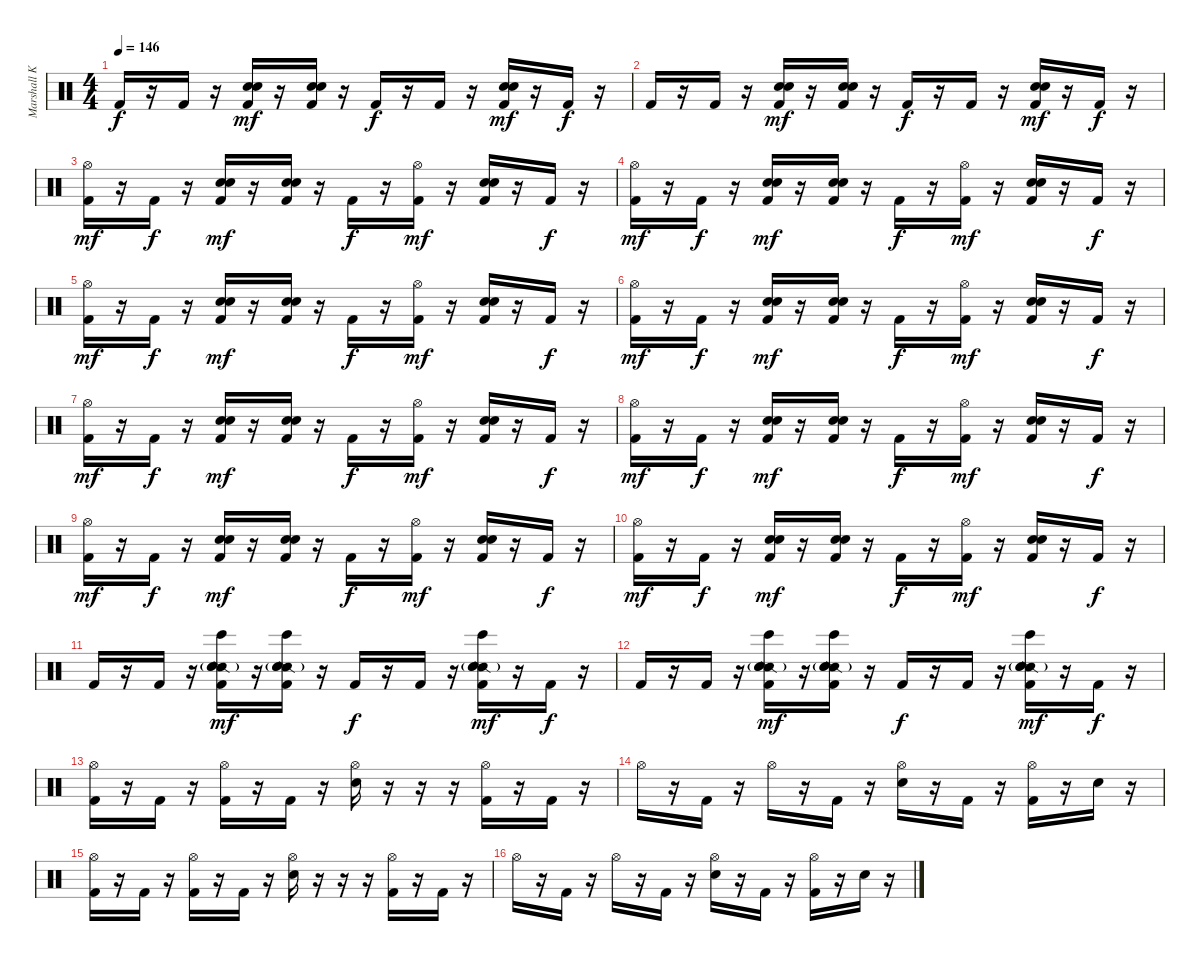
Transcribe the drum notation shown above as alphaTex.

\track ("Marshall Kilpatric" "Marshall K") {instrument percussion}
\staff {score}
\articulation defaults
\ts (4 4)
\tempo 146
\clef neutral
\ks c "Kick (hit) 2".16{dy f}
r.16 "Kick (hit) 2".16 r.16 ("Hand Clap (hit)" "Electric Snare (hit)" "Kick (hit) 2").16{dy mf} r.16 ("Hand Clap (hit)" "Electric Snare (hit)" "Kick (hit) 2").16 r.16 "Kick (hit) 2".16{dy f} r.16 "Kick (hit) 2".16 r.16 ("Hand Clap (hit)" "Electric Snare (hit)" "Kick (hit) 2").16{dy mf} r.16 "Kick (hit) 2".16{dy f} r.16 |
"Kick (hit) 2".16 r.16 "Kick (hit) 2".16 r.16 ("Hand Clap (hit)" "Electric Snare (hit)" "Kick (hit) 2").16{dy mf} r.16 ("Hand Clap (hit)" "Electric Snare (hit)" "Kick (hit) 2").16 r.16 "Kick (hit) 2".16{dy f} r.16 "Kick (hit) 2".16 r.16 ("Hand Clap (hit)" "Electric Snare (hit)" "Kick (hit) 2").16{dy mf} r.16 "Kick (hit) 2".16{dy f} r.16 |
("Hi-Hat (open)" "Kick (hit) 2").16{dy mf} r.16 "Kick (hit) 2".16{dy f} r.16 ("Hand Clap (hit)" "Electric Snare (hit)" "Kick (hit) 2").16{dy mf} r.16 ("Hand Clap (hit)" "Electric Snare (hit)" "Kick (hit) 2").16 r.16 "Kick (hit) 2".16{dy f} r.16 ("Hi-Hat (open)" "Kick (hit) 2").16{dy mf} r.16 ("Hand Clap (hit)" "Electric Snare (hit)" "Kick (hit) 2").16 r.16 "Kick (hit) 2".16{dy f} r.16 |
("Hi-Hat (open)" "Kick (hit) 2").16{dy mf} r.16 "Kick (hit) 2".16{dy f} r.16 ("Hand Clap (hit)" "Electric Snare (hit)" "Kick (hit) 2").16{dy mf} r.16 ("Hand Clap (hit)" "Electric Snare (hit)" "Kick (hit) 2").16 r.16 "Kick (hit) 2".16{dy f} r.16 ("Hi-Hat (open)" "Kick (hit) 2").16{dy mf} r.16 ("Hand Clap (hit)" "Electric Snare (hit)" "Kick (hit) 2").16 r.16 "Kick (hit) 2".16{dy f} r.16 |
("Hi-Hat (open)" "Kick (hit) 2").16{dy mf} r.16 "Kick (hit) 2".16{dy f} r.16 ("Hand Clap (hit)" "Electric Snare (hit)" "Kick (hit) 2").16{dy mf} r.16 ("Hand Clap (hit)" "Electric Snare (hit)" "Kick (hit) 2").16 r.16 "Kick (hit) 2".16{dy f} r.16 ("Hi-Hat (open)" "Kick (hit) 2").16{dy mf} r.16 ("Hand Clap (hit)" "Electric Snare (hit)" "Kick (hit) 2").16 r.16 "Kick (hit) 2".16{dy f} r.16 |
("Hi-Hat (open)" "Kick (hit) 2").16{dy mf} r.16 "Kick (hit) 2".16{dy f} r.16 ("Hand Clap (hit)" "Electric Snare (hit)" "Kick (hit) 2").16{dy mf} r.16 ("Hand Clap (hit)" "Electric Snare (hit)" "Kick (hit) 2").16 r.16 "Kick (hit) 2".16{dy f} r.16 ("Hi-Hat (open)" "Kick (hit) 2").16{dy mf} r.16 ("Hand Clap (hit)" "Electric Snare (hit)" "Kick (hit) 2").16 r.16 "Kick (hit) 2".16{dy f} r.16 |
("Hi-Hat (open)" "Kick (hit) 2").16{dy mf} r.16 "Kick (hit) 2".16{dy f} r.16 ("Hand Clap (hit)" "Electric Snare (hit)" "Kick (hit) 2").16{dy mf} r.16 ("Hand Clap (hit)" "Electric Snare (hit)" "Kick (hit) 2").16 r.16 "Kick (hit) 2".16{dy f} r.16 ("Hi-Hat (open)" "Kick (hit) 2").16{dy mf} r.16 ("Hand Clap (hit)" "Electric Snare (hit)" "Kick (hit) 2").16 r.16 "Kick (hit) 2".16{dy f} r.16 |
("Hi-Hat (open)" "Kick (hit) 2").16{dy mf} r.16 "Kick (hit) 2".16{dy f} r.16 ("Hand Clap (hit)" "Electric Snare (hit)" "Kick (hit) 2").16{dy mf} r.16 ("Hand Clap (hit)" "Electric Snare (hit)" "Kick (hit) 2").16 r.16 "Kick (hit) 2".16{dy f} r.16 ("Hi-Hat (open)" "Kick (hit) 2").16{dy mf} r.16 ("Hand Clap (hit)" "Electric Snare (hit)" "Kick (hit) 2").16 r.16 "Kick (hit) 2".16{dy f} r.16 |
("Hi-Hat (open)" "Kick (hit) 2").16{dy mf} r.16 "Kick (hit) 2".16{dy f} r.16 ("Hand Clap (hit)" "Electric Snare (hit)" "Kick (hit) 2").16{dy mf} r.16 ("Hand Clap (hit)" "Electric Snare (hit)" "Kick (hit) 2").16 r.16 "Kick (hit) 2".16{dy f} r.16 ("Hi-Hat (open)" "Kick (hit) 2").16{dy mf} r.16 ("Hand Clap (hit)" "Electric Snare (hit)" "Kick (hit) 2").16 r.16 "Kick (hit) 2".16{dy f} r.16 |
("Hi-Hat (open)" "Kick (hit) 2").16{dy mf} r.16 "Kick (hit) 2".16{dy f} r.16 ("Hand Clap (hit)" "Electric Snare (hit)" "Kick (hit) 2").16{dy mf} r.16 ("Hand Clap (hit)" "Electric Snare (hit)" "Kick (hit) 2").16 r.16 "Kick (hit) 2".16{dy f} r.16 ("Hi-Hat (open)" "Kick (hit) 2").16{dy mf} r.16 ("Hand Clap (hit)" "Electric Snare (hit)" "Kick (hit) 2").16 r.16 "Kick (hit) 2".16{dy f} r.16 |
"Kick (hit) 2".16 r.16 "Kick (hit) 2".16 r.16 ("Snare (side stick) 2" "Snare (hit) 2"{g} "Bongo High (hit)" "Electric Snare (hit)" "Kick (hit) 2").16{dy mf} r.16 ("Snare (side stick) 2" "Snare (hit) 2"{g} "Bongo High (hit)" "Electric Snare (hit)" "Kick (hit) 2").16 r.16 "Kick (hit) 2".16{dy f} r.16 "Kick (hit) 2".16 r.16 ("Snare (side stick) 2" "Snare (hit) 2"{g} "Bongo High (hit)" "Electric Snare (hit)" "Kick (hit) 2").16{dy mf} r.16 "Kick (hit) 2".16{dy f} r.16 |
"Kick (hit) 2".16 r.16 "Kick (hit) 2".16 r.16 ("Snare (side stick) 2" "Snare (hit) 2"{g} "Bongo High (hit)" "Electric Snare (hit)" "Kick (hit) 2").16{dy mf} r.16 ("Snare (side stick) 2" "Snare (hit) 2"{g} "Bongo High (hit)" "Electric Snare (hit)" "Kick (hit) 2").16 r.16 "Kick (hit) 2".16{dy f} r.16 "Kick (hit) 2".16 r.16 ("Snare (side stick) 2" "Snare (hit) 2"{g} "Bongo High (hit)" "Electric Snare (hit)" "Kick (hit) 2").16{dy mf} r.16 "Kick (hit) 2".16{dy f} r.16 |
("Hi-Hat (open)" "Kick (hit) 2").16 r.16 "Kick (hit) 2".16 r.16 ("Hi-Hat (open)" "Kick (hit) 2").16 r.16 "Kick (hit) 2".16 r.16 ("Hi-Hat (open)" "Electric Snare (hit)").16 r.16 r.16 r.16 ("Hi-Hat (open)" "Kick (hit) 2").16 r.16 "Kick (hit) 2".16 r.16 |
"Hi-Hat (open)".16 r.16 "Kick (hit) 2".16 r.16 "Hi-Hat (open)".16 r.16 "Kick (hit) 2".16 r.16 ("Hi-Hat (open)" "Electric Snare (hit)").16 r.16 "Kick (hit) 2".16 r.16 ("Hi-Hat (open)" "Kick (hit) 2").16 r.16 "Electric Snare (hit)".16 r.16 |
("Hi-Hat (open)" "Kick (hit) 2").16 r.16 "Kick (hit) 2".16 r.16 ("Hi-Hat (open)" "Kick (hit) 2").16 r.16 "Kick (hit) 2".16 r.16 ("Hi-Hat (open)" "Electric Snare (hit)").16 r.16 r.16 r.16 ("Hi-Hat (open)" "Kick (hit) 2").16 r.16 "Kick (hit) 2".16 r.16 |
"Hi-Hat (open)".16 r.16 "Kick (hit) 2".16 r.16 "Hi-Hat (open)".16 r.16 "Kick (hit) 2".16 r.16 ("Hi-Hat (open)" "Electric Snare (hit)").16 r.16 "Kick (hit) 2".16 r.16 ("Hi-Hat (open)" "Kick (hit) 2").16 r.16 "Electric Snare (hit)".16 r.16
